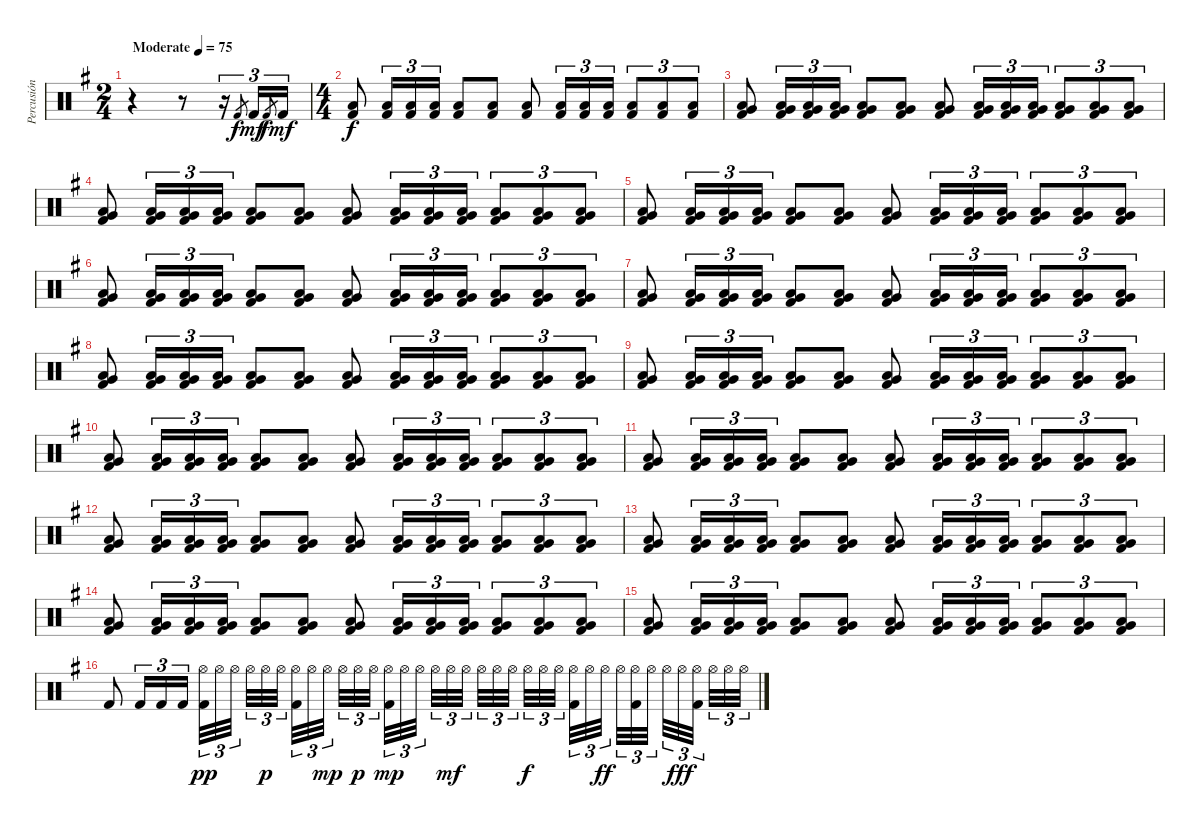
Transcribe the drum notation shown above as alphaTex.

\track ("Percusión" "Percusión") {instrument percussion}
\staff {score}
\articulation defaults
\ts (2 4)
\tempo (75 "Moderate")
\clef neutral
\ks g
r.4{dy f} r.8 r.16{tu (3 2)} "Kick (hit) 2".8{gr} "Kick (hit) 2".16{tu (3 2) dy mf} "Kick (hit) 2".8{gr dy f} "Kick (hit) 2".16{tu (3 2) dy mf} |
\ts (4 4)
("Low Floor Tom (hit)" "Kick (hit) 2").8{dy f} ("Low Floor Tom (hit)" "Kick (hit) 2").16{tu (3 2)} ("Low Floor Tom (hit)" "Kick (hit) 2").16{tu (3 2)} ("Low Floor Tom (hit)" "Kick (hit) 2").16{tu (3 2)} ("Low Floor Tom (hit)" "Kick (hit) 2").8 ("Low Floor Tom (hit)" "Kick (hit) 2").8 ("Low Floor Tom (hit)" "Kick (hit) 2").8 ("Low Floor Tom (hit)" "Kick (hit) 2").16{tu (3 2)} ("Low Floor Tom (hit)" "Kick (hit) 2").16{tu (3 2)} ("Low Floor Tom (hit)" "Kick (hit) 2").16{tu (3 2)} ("Low Floor Tom (hit)" "Kick (hit) 2").8{tu (3 2)} ("Low Floor Tom (hit)" "Kick (hit) 2").8{tu (3 2)} ("Low Floor Tom (hit)" "Kick (hit) 2").8{tu (3 2)} |
("Low Floor Tom (hit)" "Very Low Tom (hit)" "Kick (hit) 2").8 ("Low Floor Tom (hit)" "Very Low Tom (hit)" "Kick (hit) 2").16{tu (3 2)} ("Low Floor Tom (hit)" "Very Low Tom (hit)" "Kick (hit) 2").16{tu (3 2)} ("Low Floor Tom (hit)" "Very Low Tom (hit)" "Kick (hit) 2").16{tu (3 2)} ("Low Floor Tom (hit)" "Very Low Tom (hit)" "Kick (hit) 2").8 ("Low Floor Tom (hit)" "Very Low Tom (hit)" "Kick (hit) 2").8 ("Low Floor Tom (hit)" "Very Low Tom (hit)" "Kick (hit) 2").8 ("Low Floor Tom (hit)" "Very Low Tom (hit)" "Kick (hit) 2").16{tu (3 2)} ("Low Floor Tom (hit)" "Very Low Tom (hit)" "Kick (hit) 2").16{tu (3 2)} ("Low Floor Tom (hit)" "Very Low Tom (hit)" "Kick (hit) 2").16{tu (3 2)} ("Low Floor Tom (hit)" "Very Low Tom (hit)" "Kick (hit) 2").8{tu (3 2)} ("Low Floor Tom (hit)" "Very Low Tom (hit)" "Kick (hit) 2").8{tu (3 2)} ("Low Floor Tom (hit)" "Very Low Tom (hit)" "Kick (hit) 2").8{tu (3 2)} |
("Low Floor Tom (hit)" "Very Low Tom (hit)" "Kick (hit) 2").8 ("Low Floor Tom (hit)" "Very Low Tom (hit)" "Kick (hit) 2").16{tu (3 2)} ("Low Floor Tom (hit)" "Very Low Tom (hit)" "Kick (hit) 2").16{tu (3 2)} ("Low Floor Tom (hit)" "Very Low Tom (hit)" "Kick (hit) 2").16{tu (3 2)} ("Low Floor Tom (hit)" "Very Low Tom (hit)" "Kick (hit) 2").8 ("Low Floor Tom (hit)" "Very Low Tom (hit)" "Kick (hit) 2").8 ("Low Floor Tom (hit)" "Very Low Tom (hit)" "Kick (hit) 2").8 ("Low Floor Tom (hit)" "Very Low Tom (hit)" "Kick (hit) 2").16{tu (3 2)} ("Low Floor Tom (hit)" "Very Low Tom (hit)" "Kick (hit) 2").16{tu (3 2)} ("Low Floor Tom (hit)" "Very Low Tom (hit)" "Kick (hit) 2").16{tu (3 2)} ("Low Floor Tom (hit)" "Very Low Tom (hit)" "Kick (hit) 2").8{tu (3 2)} ("Low Floor Tom (hit)" "Very Low Tom (hit)" "Kick (hit) 2").8{tu (3 2)} ("Low Floor Tom (hit)" "Very Low Tom (hit)" "Kick (hit) 2").8{tu (3 2)} |
("Low Floor Tom (hit)" "Very Low Tom (hit)" "Kick (hit) 2").8 ("Low Floor Tom (hit)" "Very Low Tom (hit)" "Kick (hit) 2").16{tu (3 2)} ("Low Floor Tom (hit)" "Very Low Tom (hit)" "Kick (hit) 2").16{tu (3 2)} ("Low Floor Tom (hit)" "Very Low Tom (hit)" "Kick (hit) 2").16{tu (3 2)} ("Low Floor Tom (hit)" "Very Low Tom (hit)" "Kick (hit) 2").8 ("Low Floor Tom (hit)" "Very Low Tom (hit)" "Kick (hit) 2").8 ("Low Floor Tom (hit)" "Very Low Tom (hit)" "Kick (hit) 2").8 ("Low Floor Tom (hit)" "Very Low Tom (hit)" "Kick (hit) 2").16{tu (3 2)} ("Low Floor Tom (hit)" "Very Low Tom (hit)" "Kick (hit) 2").16{tu (3 2)} ("Low Floor Tom (hit)" "Very Low Tom (hit)" "Kick (hit) 2").16{tu (3 2)} ("Low Floor Tom (hit)" "Very Low Tom (hit)" "Kick (hit) 2").8{tu (3 2)} ("Low Floor Tom (hit)" "Very Low Tom (hit)" "Kick (hit) 2").8{tu (3 2)} ("Low Floor Tom (hit)" "Very Low Tom (hit)" "Kick (hit) 2").8{tu (3 2)} |
("Low Floor Tom (hit)" "Very Low Tom (hit)" "Kick (hit) 2").8 ("Low Floor Tom (hit)" "Very Low Tom (hit)" "Kick (hit) 2").16{tu (3 2)} ("Low Floor Tom (hit)" "Very Low Tom (hit)" "Kick (hit) 2").16{tu (3 2)} ("Low Floor Tom (hit)" "Very Low Tom (hit)" "Kick (hit) 2").16{tu (3 2)} ("Low Floor Tom (hit)" "Very Low Tom (hit)" "Kick (hit) 2").8 ("Low Floor Tom (hit)" "Very Low Tom (hit)" "Kick (hit) 2").8 ("Low Floor Tom (hit)" "Very Low Tom (hit)" "Kick (hit) 2").8 ("Low Floor Tom (hit)" "Very Low Tom (hit)" "Kick (hit) 2").16{tu (3 2)} ("Low Floor Tom (hit)" "Very Low Tom (hit)" "Kick (hit) 2").16{tu (3 2)} ("Low Floor Tom (hit)" "Very Low Tom (hit)" "Kick (hit) 2").16{tu (3 2)} ("Low Floor Tom (hit)" "Very Low Tom (hit)" "Kick (hit) 2").8{tu (3 2)} ("Low Floor Tom (hit)" "Very Low Tom (hit)" "Kick (hit) 2").8{tu (3 2)} ("Low Floor Tom (hit)" "Very Low Tom (hit)" "Kick (hit) 2").8{tu (3 2)} |
("Low Floor Tom (hit)" "Very Low Tom (hit)" "Kick (hit) 2").8 ("Low Floor Tom (hit)" "Very Low Tom (hit)" "Kick (hit) 2").16{tu (3 2)} ("Low Floor Tom (hit)" "Very Low Tom (hit)" "Kick (hit) 2").16{tu (3 2)} ("Low Floor Tom (hit)" "Very Low Tom (hit)" "Kick (hit) 2").16{tu (3 2)} ("Low Floor Tom (hit)" "Very Low Tom (hit)" "Kick (hit) 2").8 ("Low Floor Tom (hit)" "Very Low Tom (hit)" "Kick (hit) 2").8 ("Low Floor Tom (hit)" "Very Low Tom (hit)" "Kick (hit) 2").8 ("Low Floor Tom (hit)" "Very Low Tom (hit)" "Kick (hit) 2").16{tu (3 2)} ("Low Floor Tom (hit)" "Very Low Tom (hit)" "Kick (hit) 2").16{tu (3 2)} ("Low Floor Tom (hit)" "Very Low Tom (hit)" "Kick (hit) 2").16{tu (3 2)} ("Low Floor Tom (hit)" "Very Low Tom (hit)" "Kick (hit) 2").8{tu (3 2)} ("Low Floor Tom (hit)" "Very Low Tom (hit)" "Kick (hit) 2").8{tu (3 2)} ("Low Floor Tom (hit)" "Very Low Tom (hit)" "Kick (hit) 2").8{tu (3 2)} |
("Low Floor Tom (hit)" "Very Low Tom (hit)" "Kick (hit) 2").8 ("Low Floor Tom (hit)" "Very Low Tom (hit)" "Kick (hit) 2").16{tu (3 2)} ("Low Floor Tom (hit)" "Very Low Tom (hit)" "Kick (hit) 2").16{tu (3 2)} ("Low Floor Tom (hit)" "Very Low Tom (hit)" "Kick (hit) 2").16{tu (3 2)} ("Low Floor Tom (hit)" "Very Low Tom (hit)" "Kick (hit) 2").8 ("Low Floor Tom (hit)" "Very Low Tom (hit)" "Kick (hit) 2").8 ("Low Floor Tom (hit)" "Very Low Tom (hit)" "Kick (hit) 2").8 ("Low Floor Tom (hit)" "Very Low Tom (hit)" "Kick (hit) 2").16{tu (3 2)} ("Low Floor Tom (hit)" "Very Low Tom (hit)" "Kick (hit) 2").16{tu (3 2)} ("Low Floor Tom (hit)" "Very Low Tom (hit)" "Kick (hit) 2").16{tu (3 2)} ("Low Floor Tom (hit)" "Very Low Tom (hit)" "Kick (hit) 2").8{tu (3 2)} ("Low Floor Tom (hit)" "Very Low Tom (hit)" "Kick (hit) 2").8{tu (3 2)} ("Low Floor Tom (hit)" "Very Low Tom (hit)" "Kick (hit) 2").8{tu (3 2)} |
("Low Floor Tom (hit)" "Very Low Tom (hit)" "Kick (hit) 2").8 ("Low Floor Tom (hit)" "Very Low Tom (hit)" "Kick (hit) 2").16{tu (3 2)} ("Low Floor Tom (hit)" "Very Low Tom (hit)" "Kick (hit) 2").16{tu (3 2)} ("Low Floor Tom (hit)" "Very Low Tom (hit)" "Kick (hit) 2").16{tu (3 2)} ("Low Floor Tom (hit)" "Very Low Tom (hit)" "Kick (hit) 2").8 ("Low Floor Tom (hit)" "Very Low Tom (hit)" "Kick (hit) 2").8 ("Low Floor Tom (hit)" "Very Low Tom (hit)" "Kick (hit) 2").8 ("Low Floor Tom (hit)" "Very Low Tom (hit)" "Kick (hit) 2").16{tu (3 2)} ("Low Floor Tom (hit)" "Very Low Tom (hit)" "Kick (hit) 2").16{tu (3 2)} ("Low Floor Tom (hit)" "Very Low Tom (hit)" "Kick (hit) 2").16{tu (3 2)} ("Low Floor Tom (hit)" "Very Low Tom (hit)" "Kick (hit) 2").8{tu (3 2)} ("Low Floor Tom (hit)" "Very Low Tom (hit)" "Kick (hit) 2").8{tu (3 2)} ("Low Floor Tom (hit)" "Very Low Tom (hit)" "Kick (hit) 2").8{tu (3 2)} |
("Low Floor Tom (hit)" "Very Low Tom (hit)" "Kick (hit) 2").8 ("Low Floor Tom (hit)" "Very Low Tom (hit)" "Kick (hit) 2").16{tu (3 2)} ("Low Floor Tom (hit)" "Very Low Tom (hit)" "Kick (hit) 2").16{tu (3 2)} ("Low Floor Tom (hit)" "Very Low Tom (hit)" "Kick (hit) 2").16{tu (3 2)} ("Low Floor Tom (hit)" "Very Low Tom (hit)" "Kick (hit) 2").8 ("Low Floor Tom (hit)" "Very Low Tom (hit)" "Kick (hit) 2").8 ("Low Floor Tom (hit)" "Very Low Tom (hit)" "Kick (hit) 2").8 ("Low Floor Tom (hit)" "Very Low Tom (hit)" "Kick (hit) 2").16{tu (3 2)} ("Low Floor Tom (hit)" "Very Low Tom (hit)" "Kick (hit) 2").16{tu (3 2)} ("Low Floor Tom (hit)" "Very Low Tom (hit)" "Kick (hit) 2").16{tu (3 2)} ("Low Floor Tom (hit)" "Very Low Tom (hit)" "Kick (hit) 2").8{tu (3 2)} ("Low Floor Tom (hit)" "Very Low Tom (hit)" "Kick (hit) 2").8{tu (3 2)} ("Low Floor Tom (hit)" "Very Low Tom (hit)" "Kick (hit) 2").8{tu (3 2)} |
("Low Floor Tom (hit)" "Very Low Tom (hit)" "Kick (hit) 2").8 ("Low Floor Tom (hit)" "Very Low Tom (hit)" "Kick (hit) 2").16{tu (3 2)} ("Low Floor Tom (hit)" "Very Low Tom (hit)" "Kick (hit) 2").16{tu (3 2)} ("Low Floor Tom (hit)" "Very Low Tom (hit)" "Kick (hit) 2").16{tu (3 2)} ("Low Floor Tom (hit)" "Very Low Tom (hit)" "Kick (hit) 2").8 ("Low Floor Tom (hit)" "Very Low Tom (hit)" "Kick (hit) 2").8 ("Low Floor Tom (hit)" "Very Low Tom (hit)" "Kick (hit) 2").8 ("Low Floor Tom (hit)" "Very Low Tom (hit)" "Kick (hit) 2").16{tu (3 2)} ("Low Floor Tom (hit)" "Very Low Tom (hit)" "Kick (hit) 2").16{tu (3 2)} ("Low Floor Tom (hit)" "Very Low Tom (hit)" "Kick (hit) 2").16{tu (3 2)} ("Low Floor Tom (hit)" "Very Low Tom (hit)" "Kick (hit) 2").8{tu (3 2)} ("Low Floor Tom (hit)" "Very Low Tom (hit)" "Kick (hit) 2").8{tu (3 2)} ("Low Floor Tom (hit)" "Very Low Tom (hit)" "Kick (hit) 2").8{tu (3 2)} |
("Low Floor Tom (hit)" "Very Low Tom (hit)" "Kick (hit) 2").8 ("Low Floor Tom (hit)" "Very Low Tom (hit)" "Kick (hit) 2").16{tu (3 2)} ("Low Floor Tom (hit)" "Very Low Tom (hit)" "Kick (hit) 2").16{tu (3 2)} ("Low Floor Tom (hit)" "Very Low Tom (hit)" "Kick (hit) 2").16{tu (3 2)} ("Low Floor Tom (hit)" "Very Low Tom (hit)" "Kick (hit) 2").8 ("Low Floor Tom (hit)" "Very Low Tom (hit)" "Kick (hit) 2").8 ("Low Floor Tom (hit)" "Very Low Tom (hit)" "Kick (hit) 2").8 ("Low Floor Tom (hit)" "Very Low Tom (hit)" "Kick (hit) 2").16{tu (3 2)} ("Low Floor Tom (hit)" "Very Low Tom (hit)" "Kick (hit) 2").16{tu (3 2)} ("Low Floor Tom (hit)" "Very Low Tom (hit)" "Kick (hit) 2").16{tu (3 2)} ("Low Floor Tom (hit)" "Very Low Tom (hit)" "Kick (hit) 2").8{tu (3 2)} ("Low Floor Tom (hit)" "Very Low Tom (hit)" "Kick (hit) 2").8{tu (3 2)} ("Low Floor Tom (hit)" "Very Low Tom (hit)" "Kick (hit) 2").8{tu (3 2)} |
("Low Floor Tom (hit)" "Very Low Tom (hit)" "Kick (hit) 2").8 ("Low Floor Tom (hit)" "Very Low Tom (hit)" "Kick (hit) 2").16{tu (3 2)} ("Low Floor Tom (hit)" "Very Low Tom (hit)" "Kick (hit) 2").16{tu (3 2)} ("Low Floor Tom (hit)" "Very Low Tom (hit)" "Kick (hit) 2").16{tu (3 2)} ("Low Floor Tom (hit)" "Very Low Tom (hit)" "Kick (hit) 2").8 ("Low Floor Tom (hit)" "Very Low Tom (hit)" "Kick (hit) 2").8 ("Low Floor Tom (hit)" "Very Low Tom (hit)" "Kick (hit) 2").8 ("Low Floor Tom (hit)" "Very Low Tom (hit)" "Kick (hit) 2").16{tu (3 2)} ("Low Floor Tom (hit)" "Very Low Tom (hit)" "Kick (hit) 2").16{tu (3 2)} ("Low Floor Tom (hit)" "Very Low Tom (hit)" "Kick (hit) 2").16{tu (3 2)} ("Low Floor Tom (hit)" "Very Low Tom (hit)" "Kick (hit) 2").8{tu (3 2)} ("Low Floor Tom (hit)" "Very Low Tom (hit)" "Kick (hit) 2").8{tu (3 2)} ("Low Floor Tom (hit)" "Very Low Tom (hit)" "Kick (hit) 2").8{tu (3 2)} |
("Low Floor Tom (hit)" "Very Low Tom (hit)" "Kick (hit) 2").8 ("Low Floor Tom (hit)" "Very Low Tom (hit)" "Kick (hit) 2").16{tu (3 2)} ("Low Floor Tom (hit)" "Very Low Tom (hit)" "Kick (hit) 2").16{tu (3 2)} ("Low Floor Tom (hit)" "Very Low Tom (hit)" "Kick (hit) 2").16{tu (3 2)} ("Low Floor Tom (hit)" "Very Low Tom (hit)" "Kick (hit) 2").8 ("Low Floor Tom (hit)" "Very Low Tom (hit)" "Kick (hit) 2").8 ("Low Floor Tom (hit)" "Very Low Tom (hit)" "Kick (hit) 2").8 ("Low Floor Tom (hit)" "Very Low Tom (hit)" "Kick (hit) 2").16{tu (3 2)} ("Low Floor Tom (hit)" "Very Low Tom (hit)" "Kick (hit) 2").16{tu (3 2)} ("Low Floor Tom (hit)" "Very Low Tom (hit)" "Kick (hit) 2").16{tu (3 2)} ("Low Floor Tom (hit)" "Very Low Tom (hit)" "Kick (hit) 2").8{tu (3 2)} ("Low Floor Tom (hit)" "Very Low Tom (hit)" "Kick (hit) 2").8{tu (3 2)} ("Low Floor Tom (hit)" "Very Low Tom (hit)" "Kick (hit) 2").8{tu (3 2)} |
("Low Floor Tom (hit)" "Very Low Tom (hit)" "Kick (hit) 2").8 ("Low Floor Tom (hit)" "Very Low Tom (hit)" "Kick (hit) 2").16{tu (3 2)} ("Low Floor Tom (hit)" "Very Low Tom (hit)" "Kick (hit) 2").16{tu (3 2)} ("Low Floor Tom (hit)" "Very Low Tom (hit)" "Kick (hit) 2").16{tu (3 2)} ("Low Floor Tom (hit)" "Very Low Tom (hit)" "Kick (hit) 2").8 ("Low Floor Tom (hit)" "Very Low Tom (hit)" "Kick (hit) 2").8 ("Low Floor Tom (hit)" "Very Low Tom (hit)" "Kick (hit) 2").8 ("Low Floor Tom (hit)" "Very Low Tom (hit)" "Kick (hit) 2").16{tu (3 2)} ("Low Floor Tom (hit)" "Very Low Tom (hit)" "Kick (hit) 2").16{tu (3 2)} ("Low Floor Tom (hit)" "Very Low Tom (hit)" "Kick (hit) 2").16{tu (3 2)} ("Low Floor Tom (hit)" "Very Low Tom (hit)" "Kick (hit) 2").8{tu (3 2)} ("Low Floor Tom (hit)" "Very Low Tom (hit)" "Kick (hit) 2").8{tu (3 2)} ("Low Floor Tom (hit)" "Very Low Tom (hit)" "Kick (hit) 2").8{tu (3 2)} |
"Kick (hit) 2".8 "Kick (hit) 2".16{tu (3 2)} "Kick (hit) 2".16{tu (3 2)} "Kick (hit) 2".16{tu (3 2)} ("Hi-Hat (open)" "Kick (hit) 2").32{tu (3 2) dy pp} "Hi-Hat (open)".32{tu (3 2)} "Hi-Hat (open)".32{tu (3 2) beam splitsecondary} "Hi-Hat (open)".32{tu (3 2)} "Hi-Hat (open)".32{tu (3 2) dy p} "Hi-Hat (open)".32{tu (3 2) beam splitsecondary} ("Hi-Hat (open)" "Kick (hit) 2").32{tu (3 2)} "Hi-Hat (open)".32{tu (3 2)} "Hi-Hat (open)".32{tu (3 2) dy mp beam splitsecondary} "Hi-Hat (open)".32{tu (3 2)} "Hi-Hat (open)".32{tu (3 2) dy p} "Hi-Hat (open)".32{tu (3 2)} ("Hi-Hat (open)" "Kick (hit) 2").32{tu (3 2) dy mp} "Hi-Hat (open)".32{tu (3 2)} "Hi-Hat (open)".32{tu (3 2) beam splitsecondary} "Hi-Hat (open)".32{tu (3 2)} "Hi-Hat (open)".32{tu (3 2) dy mf} "Hi-Hat (open)".32{tu (3 2) beam splitsecondary} "Hi-Hat (open)".32{tu (3 2)} "Hi-Hat (open)".32{tu (3 2)} "Hi-Hat (open)".32{tu (3 2) beam splitsecondary} "Hi-Hat (open)".32{tu (3 2) dy f} "Hi-Hat (open)".32{tu (3 2)} "Hi-Hat (open)".32{tu (3 2)} ("Hi-Hat (open)" "Kick (hit) 2").32{tu (3 2)} "Hi-Hat (open)".32{tu (3 2)} "Hi-Hat (open)".32{tu (3 2) dy ff beam splitsecondary} "Hi-Hat (open)".32{tu (3 2)} ("Hi-Hat (open)" "Kick (hit) 2").32{tu (3 2)} "Hi-Hat (open)".32{tu (3 2) beam splitsecondary} "Hi-Hat (open)".32{tu (3 2)} "Hi-Hat (open)".32{tu (3 2) dy fff} ("Hi-Hat (open)" "Kick (hit) 2").32{tu (3 2) beam splitsecondary} "Hi-Hat (open)".32{tu (3 2)} "Hi-Hat (open)".32{tu (3 2)} "Hi-Hat (open)".32{tu (3 2)}
